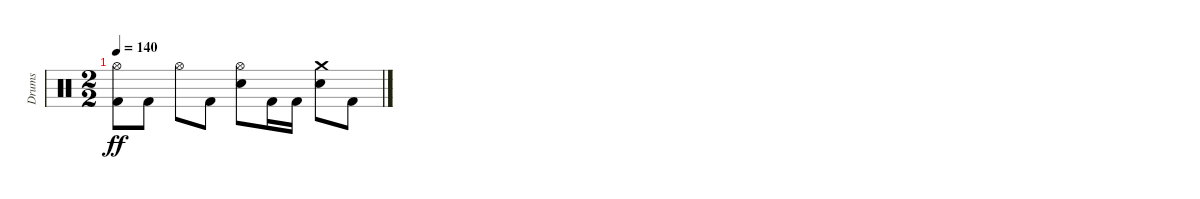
\track ("Drums" "Drums") {instrument percussion}
\staff {score}
\articulation defaults
\ts (2 2)
\tempo 140
\clef neutral
\ks c
("Hi-Hat (open)" "Kick (hit) 2").8{dy ff} "Kick (hit) 2".8 "Hi-Hat (open)".8 "Kick (hit) 2".8 ("Hi-Hat (open)" "Snare (hit) 2").8 "Kick (hit) 2".16 "Kick (hit) 2".16 ("Crash medium (hit)" "Snare (hit) 2").8 "Kick (hit) 2".8
